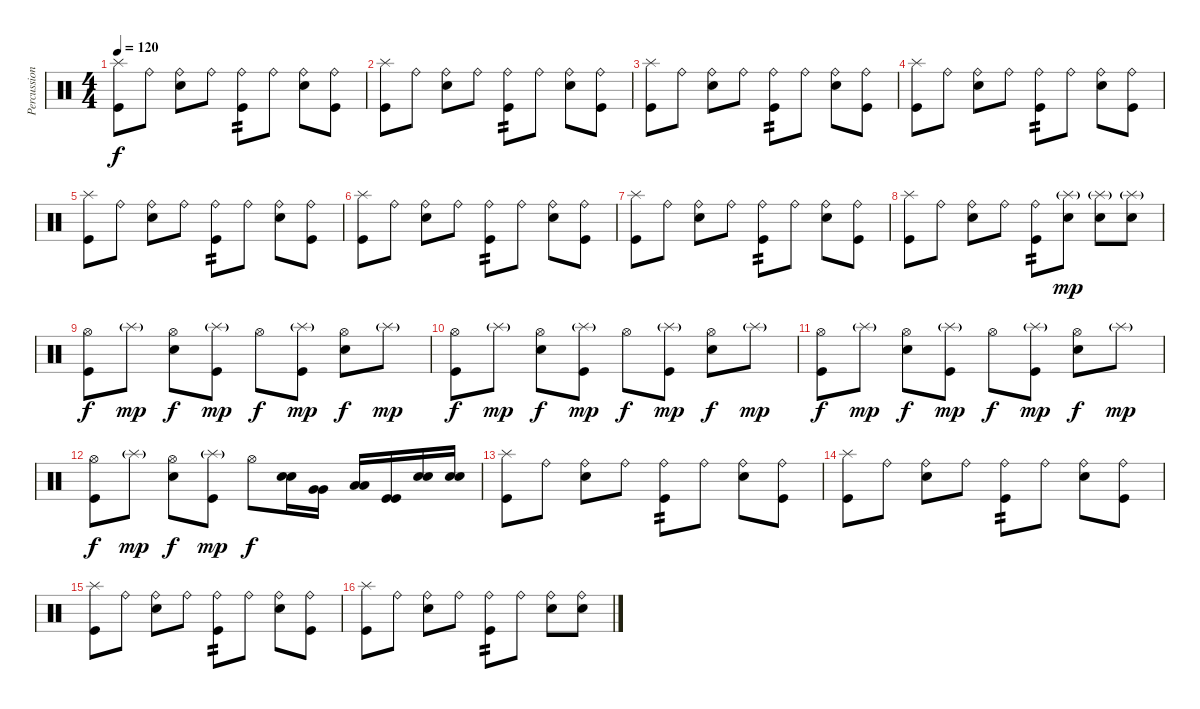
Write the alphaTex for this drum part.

\track ("Percussion" "Percussion") {instrument percussion}
\staff {score}
\articulation defaults
\ts (4 4)
\tempo 120
\clef neutral
\ks c
("Kick (hit)" "Splash (hit)").8{dy f} "Ride (bell)".8 ("Electric Snare (hit)" "Ride (bell)").8 "Ride (bell)".8 ("Kick (hit)" "Ride (bell)").8{tp 2} "Ride (bell)".8 ("Electric Snare (hit)" "Ride (bell)").8 ("Kick (hit)" "Ride (bell)").8 |
("Kick (hit)" "Splash (hit)").8 "Ride (bell)".8 ("Electric Snare (hit)" "Ride (bell)").8 "Ride (bell)".8 ("Kick (hit)" "Ride (bell)").8{tp 2} "Ride (bell)".8 ("Electric Snare (hit)" "Ride (bell)").8 ("Kick (hit)" "Ride (bell)").8 |
("Kick (hit)" "Splash (hit)").8 "Ride (bell)".8 ("Electric Snare (hit)" "Ride (bell)").8 "Ride (bell)".8 ("Kick (hit)" "Ride (bell)").8{tp 2} "Ride (bell)".8 ("Electric Snare (hit)" "Ride (bell)").8 ("Kick (hit)" "Ride (bell)").8 |
("Kick (hit)" "Splash (hit)").8 "Ride (bell)".8 ("Electric Snare (hit)" "Ride (bell)").8 "Ride (bell)".8 ("Kick (hit)" "Ride (bell)").8{tp 2} "Ride (bell)".8 ("Electric Snare (hit)" "Ride (bell)").8 ("Kick (hit)" "Ride (bell)").8 |
("Kick (hit)" "Splash (hit)").8 "Ride (bell)".8 ("Electric Snare (hit)" "Ride (bell)").8 "Ride (bell)".8 ("Kick (hit)" "Ride (bell)").8{tp 2} "Ride (bell)".8 ("Electric Snare (hit)" "Ride (bell)").8 ("Kick (hit)" "Ride (bell)").8 |
("Kick (hit)" "Splash (hit)").8 "Ride (bell)".8 ("Electric Snare (hit)" "Ride (bell)").8 "Ride (bell)".8 ("Kick (hit)" "Ride (bell)").8{tp 2} "Ride (bell)".8 ("Electric Snare (hit)" "Ride (bell)").8 ("Kick (hit)" "Ride (bell)").8 |
("Kick (hit)" "Splash (hit)").8 "Ride (bell)".8 ("Electric Snare (hit)" "Ride (bell)").8 "Ride (bell)".8 ("Kick (hit)" "Ride (bell)").8{tp 2} "Ride (bell)".8 ("Electric Snare (hit)" "Ride (bell)").8 ("Kick (hit)" "Ride (bell)").8 |
("Kick (hit)" "Splash (hit)").8 "Ride (bell)".8 ("Electric Snare (hit)" "Ride (bell)").8 "Ride (bell)".8 ("Kick (hit)" "Ride (bell)").8{tp 2} ("Electric Snare (hit)" "Splash (hit)"{g}).8{dy mp} ("Electric Snare (hit)" "Splash (hit)"{g}).8 ("Electric Snare (hit)" "Splash (hit)"{g}).8 |
("Hi-Hat (open)" "Kick (hit)").8{dy f} "Splash (hit)"{g}.8{dy mp} ("Hi-Hat (open)" "Electric Snare (hit)").8{dy f} ("Splash (hit)"{g} "Kick (hit)").8{dy mp} "Hi-Hat (open)".8{dy f} ("Splash (hit)"{g} "Kick (hit)").8{dy mp} ("Hi-Hat (open)" "Electric Snare (hit)").8{dy f} "Splash (hit)"{g}.8{dy mp} |
("Hi-Hat (open)" "Kick (hit)").8{dy f} "Splash (hit)"{g}.8{dy mp} ("Hi-Hat (open)" "Electric Snare (hit)").8{dy f} ("Splash (hit)"{g} "Kick (hit)").8{dy mp} "Hi-Hat (open)".8{dy f} ("Splash (hit)"{g} "Kick (hit)").8{dy mp} ("Hi-Hat (open)" "Electric Snare (hit)").8{dy f} "Splash (hit)"{g}.8{dy mp} |
("Hi-Hat (open)" "Kick (hit)").8{dy f} "Splash (hit)"{g}.8{dy mp} ("Hi-Hat (open)" "Electric Snare (hit)").8{dy f} ("Splash (hit)"{g} "Kick (hit)").8{dy mp} "Hi-Hat (open)".8{dy f} ("Splash (hit)"{g} "Kick (hit)").8{dy mp} ("Hi-Hat (open)" "Electric Snare (hit)").8{dy f} "Splash (hit)"{g}.8{dy mp} |
("Hi-Hat (open)" "Kick (hit)").8{dy f} "Splash (hit)"{g}.8{dy mp} ("Hi-Hat (open)" "Electric Snare (hit)").8{dy f} ("Splash (hit)"{g} "Kick (hit)").8{dy mp} "Hi-Hat (open)".8{dy f} ("Electric Snare (hit)" "Electric Snare (hit)").16 ("Very Low Tom (hit)" "Very Low Tom (hit)").16 ("Low Floor Tom (hit)" "Low Floor Tom (hit)").16 ("Kick (hit)" "Kick (hit)").16 ("Electric Snare (hit)" "Electric Snare (hit)").16 ("Electric Snare (hit)" "Electric Snare (hit)").16 |
("Kick (hit)" "Splash (hit)").8 "Ride (bell)".8 ("Electric Snare (hit)" "Ride (bell)").8 "Ride (bell)".8 ("Kick (hit)" "Ride (bell)").8{tp 2} "Ride (bell)".8 ("Electric Snare (hit)" "Ride (bell)").8 ("Kick (hit)" "Ride (bell)").8 |
("Kick (hit)" "Splash (hit)").8 "Ride (bell)".8 ("Electric Snare (hit)" "Ride (bell)").8 "Ride (bell)".8 ("Kick (hit)" "Ride (bell)").8{tp 2} "Ride (bell)".8 ("Electric Snare (hit)" "Ride (bell)").8 ("Kick (hit)" "Ride (bell)").8 |
("Kick (hit)" "Splash (hit)").8 "Ride (bell)".8 ("Electric Snare (hit)" "Ride (bell)").8 "Ride (bell)".8 ("Kick (hit)" "Ride (bell)").8{tp 2} "Ride (bell)".8 ("Electric Snare (hit)" "Ride (bell)").8 ("Kick (hit)" "Ride (bell)").8 |
("Kick (hit)" "Splash (hit)").8 "Ride (bell)".8 ("Electric Snare (hit)" "Ride (bell)").8 "Ride (bell)".8 ("Kick (hit)" "Ride (bell)").8{tp 2} "Ride (bell)".8 ("Electric Snare (hit)" "Ride (bell)").8 ("Electric Snare (hit)" "Ride (bell)").8
